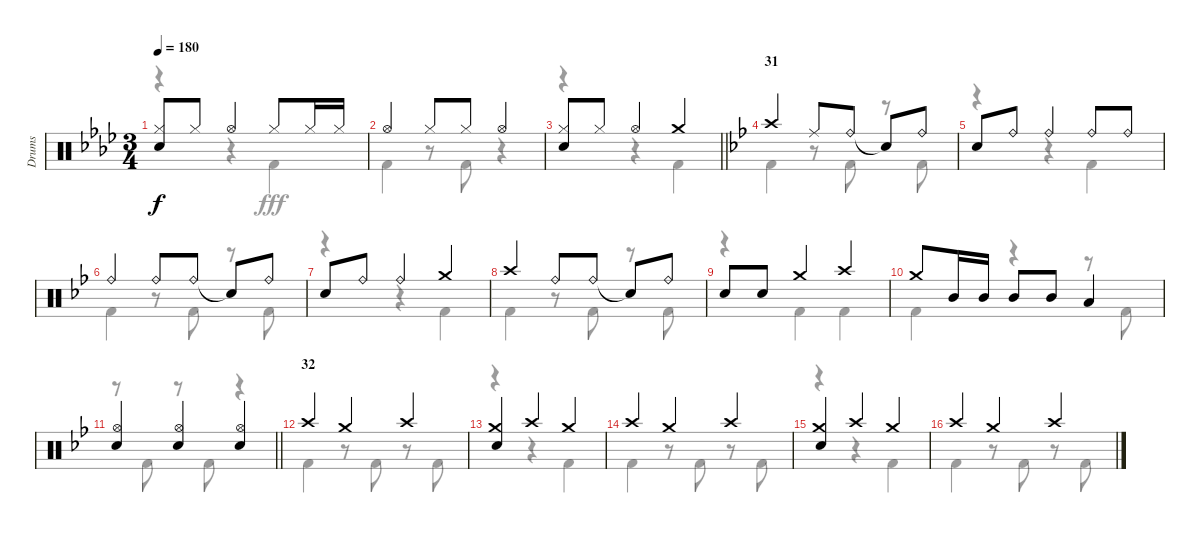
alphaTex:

\track ("Drums" "Drums") {instrument percussion}
\staff {score}
\articulation defaults
\voice
\ts (3 4)
\tempo 180
\clef neutral
\ks ab
("Hi-Hat (closed)" "Snare (hit) 2").8{dy f} "Hi-Hat (closed)".8 "Hi-Hat (open)".4 "Hi-Hat (closed)".8 "Hi-Hat (closed)".16 "Hi-Hat (closed)".16 |
"Hi-Hat (open)".4 "Hi-Hat (closed)".8 "Hi-Hat (closed)".8 "Hi-Hat (open)".4 |
\barLineRight lightlight
("Hi-Hat (closed)" "Snare (hit) 2").8 "Hi-Hat (closed)".8 "Hi-Hat (open)".4 "Crash medium (hit)".4 |
\section ("" "31")
\ks bb "Crash high (hit)".4 "Ride (middle)".8 "Ride (bell)".8 "Snare (hit)"{t}.8 "Ride (bell)".8
|
"Snare (hit) 2".8 "Ride (bell)".8 "Ride (bell)".4 "Ride (bell)".8 "Ride (bell)".8 |
"Ride (bell)".4 "Ride (bell)".8 "Ride (bell)".8 "Snare (hit)"{t}.8 "Ride (bell)".8 |
"Snare (hit) 2".8 "Ride (bell)".8 "Ride (bell)".4 "Crash medium (hit)".4 |
"Crash high (hit)".4 "Ride (bell)".8 "Ride (bell)".8 "Snare (hit)"{t}.8 "Ride (bell)".8 |
"Snare (hit) 2".8 "Snare (hit) 2".8 "Crash medium (hit)".4 "Crash high (hit)".4 |
"Crash medium (hit)".8 "Mid Tom (hit)".16 "Mid Tom (hit)".16 "Mid Tom (hit)".8 "Mid Tom (hit)".8 "Low Tom (hit)".4 |
\barLineRight lightlight
("Hi-Hat (open)" "Snare (hit) 2").4 ("Hi-Hat (open)" "Snare (hit) 2").4 ("Hi-Hat (open)" "Snare (hit) 2").4 |
\section ("" "32")
"Crash high (hit)".4 "Crash medium (hit)".4 "Crash high (hit)".4 |
("Crash medium (hit)" "Snare (hit) 2").4 "Crash high (hit)".4 "Crash medium (hit)".4 |
"Crash high (hit)".4 "Crash medium (hit)".4 "Crash high (hit)".4 |
("Crash medium (hit)" "Snare (hit) 2").4 "Crash high (hit)".4 "Crash medium (hit)".4 |
"Crash high (hit)".4 "Crash medium (hit)".4 "Crash high (hit)".4
\voice
\clef neutral
\ottava regular
\simile none
\ks ab
r.4{dy fff} r.4 "Kick (hit) 2".4 |
"Kick (hit) 2".4 r.8 "Kick (hit) 2".8 r.4 |
\barLineRight lightlight
r.4 r.4 "Kick (hit) 2".4 |
\ks bb "Kick (hit) 2".4
r.8 "Kick (hit) 2".8 r.8 "Kick (hit) 2".8 |
r.4 r.4 "Kick (hit) 2".4 |
"Kick (hit) 2".4 r.8 "Kick (hit) 2".8 r.8 "Kick (hit) 2".8 |
r.4 r.4 "Kick (hit) 2".4 |
"Kick (hit) 2".4 r.8 "Kick (hit) 2".8 r.8 "Kick (hit) 2".8 |
r.4 "Kick (hit) 2".4 "Kick (hit) 2".4 |
"Kick (hit) 2".4 r.4 r.8 "Kick (hit) 2".8 |
\barLineRight lightlight
r.8 "Kick (hit) 2".8 r.8 "Kick (hit) 2".8 r.4 |
"Kick (hit) 2".4 r.8 "Kick (hit) 2".8 r.8 "Kick (hit) 2".8 |
r.4 r.4 "Kick (hit) 2".4 |
"Kick (hit) 2".4 r.8 "Kick (hit) 2".8 r.8 "Kick (hit) 2".8 |
r.4 r.4 "Kick (hit) 2".4 |
"Kick (hit) 2".4 r.8 "Kick (hit) 2".8 r.8 "Kick (hit) 2".8
